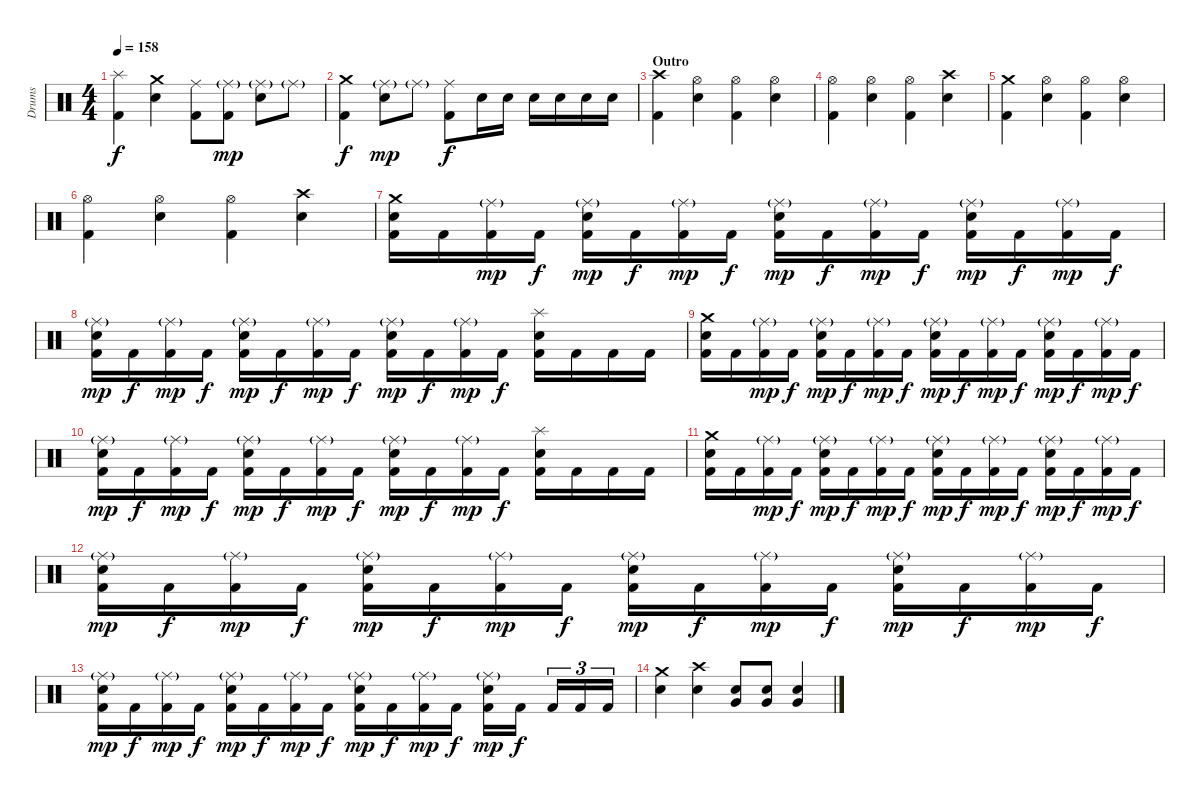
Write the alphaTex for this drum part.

\track ("Drums" "Drums") {instrument percussion}
\staff {score}
\articulation defaults
\ts (4 4)
\tempo 158
\clef neutral
\ks c
("Splash (hit)" "Kick (hit) 2").4{dy f} ("Crash medium (hit)" "Snare (hit) 2").4 ("Ride (middle)" "Kick (hit) 2").8 ("Ride (middle)"{g} "Kick (hit) 2").8{dy mp} ("Ride (middle)"{g} "Snare (hit) 2").8 "Ride (middle)"{g}.8 |
("Crash medium (hit)" "Kick (hit) 2").4{dy f} ("Ride (middle)"{g} "Snare (hit) 2").8{dy mp} "Ride (middle)"{g}.8 ("Ride (middle)" "Kick (hit) 2").8{dy f} "Snare (hit) 2".16 "Snare (hit) 2".16 "Snare (hit) 2".16 "Snare (hit) 2".16 "Snare (hit) 2".16 "Snare (hit) 2".16 |
\section ("" "Outro")
("Crash high (hit)" "Kick (hit) 2").4 ("Hi-Hat (open)" "Snare (hit) 2").4 ("Hi-Hat (open)" "Kick (hit) 2").4 ("Hi-Hat (open)" "Snare (hit) 2").4 |
("Hi-Hat (open)" "Kick (hit) 2").4 ("Hi-Hat (open)" "Snare (hit) 2").4 ("Hi-Hat (open)" "Kick (hit) 2").4 ("Crash high (hit)" "Snare (hit) 2").4 |
("Crash medium (hit)" "Kick (hit) 2").4 ("Hi-Hat (open)" "Snare (hit) 2").4 ("Hi-Hat (open)" "Kick (hit) 2").4 ("Hi-Hat (open)" "Snare (hit) 2").4 |
("Hi-Hat (open)" "Kick (hit) 2").4 ("Hi-Hat (open)" "Snare (hit) 2").4 ("Hi-Hat (open)" "Kick (hit) 2").4 ("Crash high (hit)" "Snare (hit) 2").4 |
("Crash medium (hit)" "Snare (hit) 2" "Kick (hit) 2").16 "Kick (hit) 2".16 ("Ride (middle)"{g} "Kick (hit) 2").16{dy mp} "Kick (hit) 2".16{dy f} ("Ride (middle)"{g} "Snare (hit) 2" "Kick (hit) 2").16{dy mp} "Kick (hit) 2".16{dy f} ("Ride (middle)"{g} "Kick (hit) 2").16{dy mp} "Kick (hit) 2".16{dy f} ("Ride (middle)"{g} "Snare (hit) 2" "Kick (hit) 2").16{dy mp} "Kick (hit) 2".16{dy f} ("Ride (middle)"{g} "Kick (hit) 2").16{dy mp} "Kick (hit) 2".16{dy f} ("Ride (middle)"{g} "Snare (hit) 2" "Kick (hit) 2").16{dy mp} "Kick (hit) 2".16{dy f} ("Ride (middle)"{g} "Kick (hit) 2").16{dy mp} "Kick (hit) 2".16{dy f} |
("Ride (middle)"{g} "Snare (hit) 2" "Kick (hit) 2").16{dy mp} "Kick (hit) 2".16{dy f} ("Ride (middle)"{g} "Kick (hit) 2").16{dy mp} "Kick (hit) 2".16{dy f} ("Ride (middle)"{g} "Snare (hit) 2" "Kick (hit) 2").16{dy mp} "Kick (hit) 2".16{dy f} ("Ride (middle)"{g} "Kick (hit) 2").16{dy mp} "Kick (hit) 2".16{dy f} ("Ride (middle)"{g} "Snare (hit) 2" "Kick (hit) 2").16{dy mp} "Kick (hit) 2".16{dy f} ("Ride (middle)"{g} "Kick (hit) 2").16{dy mp} "Kick (hit) 2".16{dy f} ("Splash (hit)" "Snare (hit) 2" "Kick (hit) 2").16 "Kick (hit) 2".16 "Kick (hit) 2".16 "Kick (hit) 2".16 |
("Crash medium (hit)" "Snare (hit) 2" "Kick (hit) 2").16 "Kick (hit) 2".16 ("Ride (middle)"{g} "Kick (hit) 2").16{dy mp} "Kick (hit) 2".16{dy f} ("Ride (middle)"{g} "Snare (hit) 2" "Kick (hit) 2").16{dy mp} "Kick (hit) 2".16{dy f} ("Ride (middle)"{g} "Kick (hit) 2").16{dy mp} "Kick (hit) 2".16{dy f} ("Ride (middle)"{g} "Snare (hit) 2" "Kick (hit) 2").16{dy mp} "Kick (hit) 2".16{dy f} ("Ride (middle)"{g} "Kick (hit) 2").16{dy mp} "Kick (hit) 2".16{dy f} ("Ride (middle)"{g} "Snare (hit) 2" "Kick (hit) 2").16{dy mp} "Kick (hit) 2".16{dy f} ("Ride (middle)"{g} "Kick (hit) 2").16{dy mp} "Kick (hit) 2".16{dy f} |
("Ride (middle)"{g} "Snare (hit) 2" "Kick (hit) 2").16{dy mp} "Kick (hit) 2".16{dy f} ("Ride (middle)"{g} "Kick (hit) 2").16{dy mp} "Kick (hit) 2".16{dy f} ("Ride (middle)"{g} "Snare (hit) 2" "Kick (hit) 2").16{dy mp} "Kick (hit) 2".16{dy f} ("Ride (middle)"{g} "Kick (hit) 2").16{dy mp} "Kick (hit) 2".16{dy f} ("Ride (middle)"{g} "Snare (hit) 2" "Kick (hit) 2").16{dy mp} "Kick (hit) 2".16{dy f} ("Ride (middle)"{g} "Kick (hit) 2").16{dy mp} "Kick (hit) 2".16{dy f} ("Splash (hit)" "Snare (hit) 2" "Kick (hit) 2").16 "Kick (hit) 2".16 "Kick (hit) 2".16 "Kick (hit) 2".16 |
("Crash medium (hit)" "Snare (hit) 2" "Kick (hit) 2").16 "Kick (hit) 2".16 ("Ride (middle)"{g} "Kick (hit) 2").16{dy mp} "Kick (hit) 2".16{dy f} ("Ride (middle)"{g} "Snare (hit) 2" "Kick (hit) 2").16{dy mp} "Kick (hit) 2".16{dy f} ("Ride (middle)"{g} "Kick (hit) 2").16{dy mp} "Kick (hit) 2".16{dy f} ("Ride (middle)"{g} "Snare (hit) 2" "Kick (hit) 2").16{dy mp} "Kick (hit) 2".16{dy f} ("Ride (middle)"{g} "Kick (hit) 2").16{dy mp} "Kick (hit) 2".16{dy f} ("Ride (middle)"{g} "Snare (hit) 2" "Kick (hit) 2").16{dy mp} "Kick (hit) 2".16{dy f} ("Ride (middle)"{g} "Kick (hit) 2").16{dy mp} "Kick (hit) 2".16{dy f} |
("Ride (middle)"{g} "Snare (hit) 2" "Kick (hit) 2").16{dy mp} "Kick (hit) 2".16{dy f} ("Ride (middle)"{g} "Kick (hit) 2").16{dy mp} "Kick (hit) 2".16{dy f} ("Ride (middle)"{g} "Snare (hit) 2" "Kick (hit) 2").16{dy mp} "Kick (hit) 2".16{dy f} ("Ride (middle)"{g} "Kick (hit) 2").16{dy mp} "Kick (hit) 2".16{dy f} ("Ride (middle)"{g} "Snare (hit) 2" "Kick (hit) 2").16{dy mp} "Kick (hit) 2".16{dy f} ("Ride (middle)"{g} "Kick (hit) 2").16{dy mp} "Kick (hit) 2".16{dy f} ("Ride (middle)"{g} "Snare (hit) 2" "Kick (hit) 2").16{dy mp} "Kick (hit) 2".16{dy f} ("Ride (middle)"{g} "Kick (hit) 2").16{dy mp} "Kick (hit) 2".16{dy f} |
("Ride (middle)"{g} "Snare (hit) 2" "Kick (hit) 2").16{dy mp} "Kick (hit) 2".16{dy f} ("Ride (middle)"{g} "Kick (hit) 2").16{dy mp} "Kick (hit) 2".16{dy f} ("Ride (middle)"{g} "Snare (hit) 2" "Kick (hit) 2").16{dy mp} "Kick (hit) 2".16{dy f} ("Ride (middle)"{g} "Kick (hit) 2").16{dy mp} "Kick (hit) 2".16{dy f} ("Ride (middle)"{g} "Snare (hit) 2" "Kick (hit) 2").16{dy mp} "Kick (hit) 2".16{dy f} ("Ride (middle)"{g} "Kick (hit) 2").16{dy mp} "Kick (hit) 2".16{dy f} ("Ride (middle)"{g} "Snare (hit) 2" "Kick (hit) 2").16{dy mp} "Kick (hit) 2".16{dy f} "Kick (hit) 2".16{tu (3 2)} "Kick (hit) 2".16{tu (3 2)} "Kick (hit) 2".16{tu (3 2)} |
("Crash medium (hit)" "Snare (hit) 2").4 ("Crash high (hit)" "Snare (hit) 2").4 ("Very Low Tom (hit)" "Snare (hit) 2").8 ("Very Low Tom (hit)" "Snare (hit) 2").8 ("Very Low Tom (hit)" "Snare (hit) 2").4
